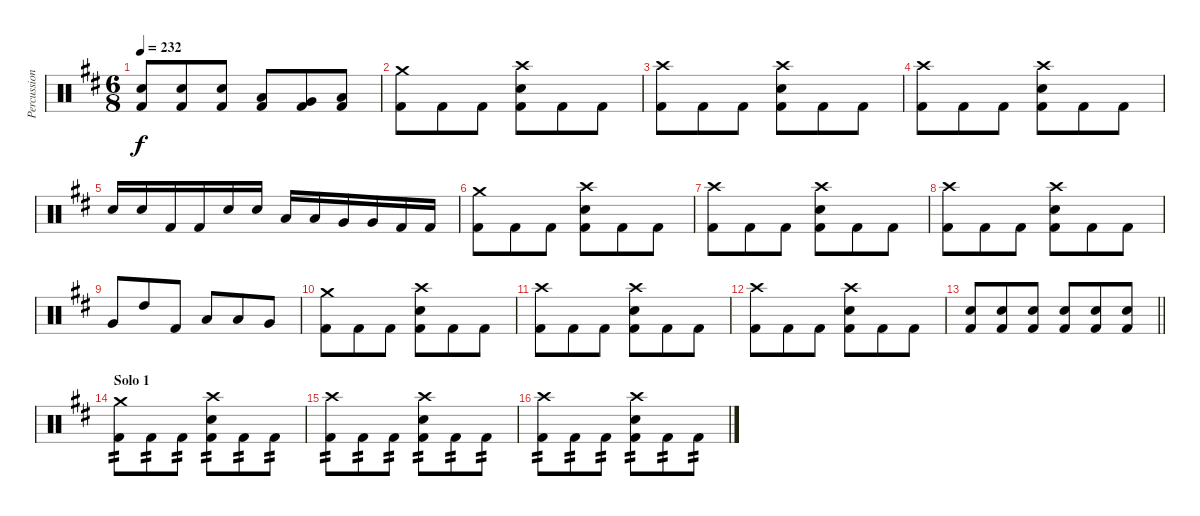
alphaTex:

\track ("Percussion" "Percussion") {instrument percussion}
\staff {score}
\articulation defaults
\ts (6 8)
\tempo 232
\clef neutral
\ks bminor
("Electric Snare (hit)" "Kick (hit) 2").8{dy f} ("Electric Snare (hit)" "Kick (hit) 2").8 ("Electric Snare (hit)" "Kick (hit) 2").8 ("Low Tom (hit)" "Kick (hit) 2").8 ("Very Low Tom (hit)" "Kick (hit) 2").8 ("Low Floor Tom (hit)" "Kick (hit) 2").8 |
("Crash medium (hit)" "Kick (hit) 2").8 "Kick (hit) 2".8 "Kick (hit) 2".8 ("Crash high (hit)" "Electric Snare (hit)" "Kick (hit) 2").8 "Kick (hit) 2".8 "Kick (hit) 2".8 |
("Crash high (hit)" "Kick (hit) 2").8 "Kick (hit) 2".8 "Kick (hit) 2".8 ("Crash high (hit)" "Electric Snare (hit)" "Kick (hit) 2").8 "Kick (hit) 2".8 "Kick (hit) 2".8 |
("Crash high (hit)" "Kick (hit) 2").8 "Kick (hit) 2".8 "Kick (hit) 2".8 ("Crash high (hit)" "Electric Snare (hit)" "Kick (hit) 2").8 "Kick (hit) 2".8 "Kick (hit) 2".8 |
"Electric Snare (hit)".16 "Electric Snare (hit)".16 "Kick (hit) 2".16 "Kick (hit) 2".16 "Electric Snare (hit)".16 "Electric Snare (hit)".16 "Low Tom (hit)".16 "Low Tom (hit)".16 "Very Low Tom (hit)".16 "Very Low Tom (hit)".16 "Kick (hit) 2".16 "Kick (hit) 2".16 |
("Crash medium (hit)" "Kick (hit) 2").8 "Kick (hit) 2".8 "Kick (hit) 2".8 ("Crash high (hit)" "Electric Snare (hit)" "Kick (hit) 2").8 "Kick (hit) 2".8 "Kick (hit) 2".8 |
("Crash high (hit)" "Kick (hit) 2").8 "Kick (hit) 2".8 "Kick (hit) 2".8 ("Crash high (hit)" "Electric Snare (hit)" "Kick (hit) 2").8 "Kick (hit) 2".8 "Kick (hit) 2".8 |
("Crash high (hit)" "Kick (hit) 2").8 "Kick (hit) 2".8 "Kick (hit) 2".8 ("Crash high (hit)" "Electric Snare (hit)" "Kick (hit) 2").8 "Kick (hit) 2".8 "Kick (hit) 2".8 |
"Very Low Tom (hit)".8 "High Tom (hit)".8 "Kick (hit) 2".8 "Low Tom (hit)".8 "Low Floor Tom (hit)".8 "Very Low Tom (hit)".8 |
("Crash medium (hit)" "Kick (hit) 2").8 "Kick (hit) 2".8 "Kick (hit) 2".8 ("Crash high (hit)" "Electric Snare (hit)" "Kick (hit) 2").8 "Kick (hit) 2".8 "Kick (hit) 2".8 |
("Crash high (hit)" "Kick (hit) 2").8 "Kick (hit) 2".8 "Kick (hit) 2".8 ("Crash high (hit)" "Electric Snare (hit)" "Kick (hit) 2").8 "Kick (hit) 2".8 "Kick (hit) 2".8 |
("Crash high (hit)" "Kick (hit) 2").8 "Kick (hit) 2".8 "Kick (hit) 2".8 ("Crash high (hit)" "Electric Snare (hit)" "Kick (hit) 2").8 "Kick (hit) 2".8 "Kick (hit) 2".8 |
\barLineRight lightlight
("Electric Snare (hit)" "Kick (hit) 2").8 ("Electric Snare (hit)" "Kick (hit) 2").8 ("Electric Snare (hit)" "Kick (hit) 2").8 ("Electric Snare (hit)" "Kick (hit) 2").8 ("Electric Snare (hit)" "Kick (hit) 2").8 ("Electric Snare (hit)" "Kick (hit) 2").8 |
\section ("" "Solo 1")
("Crash medium (hit)" "Kick (hit) 2").8{tp 2} "Kick (hit) 2".8{tp 2} "Kick (hit) 2".8{tp 2} ("Crash high (hit)" "Electric Snare (hit)" "Kick (hit) 2").8{tp 2} "Kick (hit) 2".8{tp 2} "Kick (hit) 2".8{tp 2} |
("Crash high (hit)" "Kick (hit) 2").8{tp 2} "Kick (hit) 2".8{tp 2} "Kick (hit) 2".8{tp 2} ("Crash high (hit)" "Electric Snare (hit)" "Kick (hit) 2").8{tp 2} "Kick (hit) 2".8{tp 2} "Kick (hit) 2".8{tp 2} |
("Crash high (hit)" "Kick (hit) 2").8{tp 2} "Kick (hit) 2".8{tp 2} "Kick (hit) 2".8{tp 2} ("Crash high (hit)" "Electric Snare (hit)" "Kick (hit) 2").8{tp 2} "Kick (hit) 2".8{tp 2} "Kick (hit) 2".8{tp 2}
